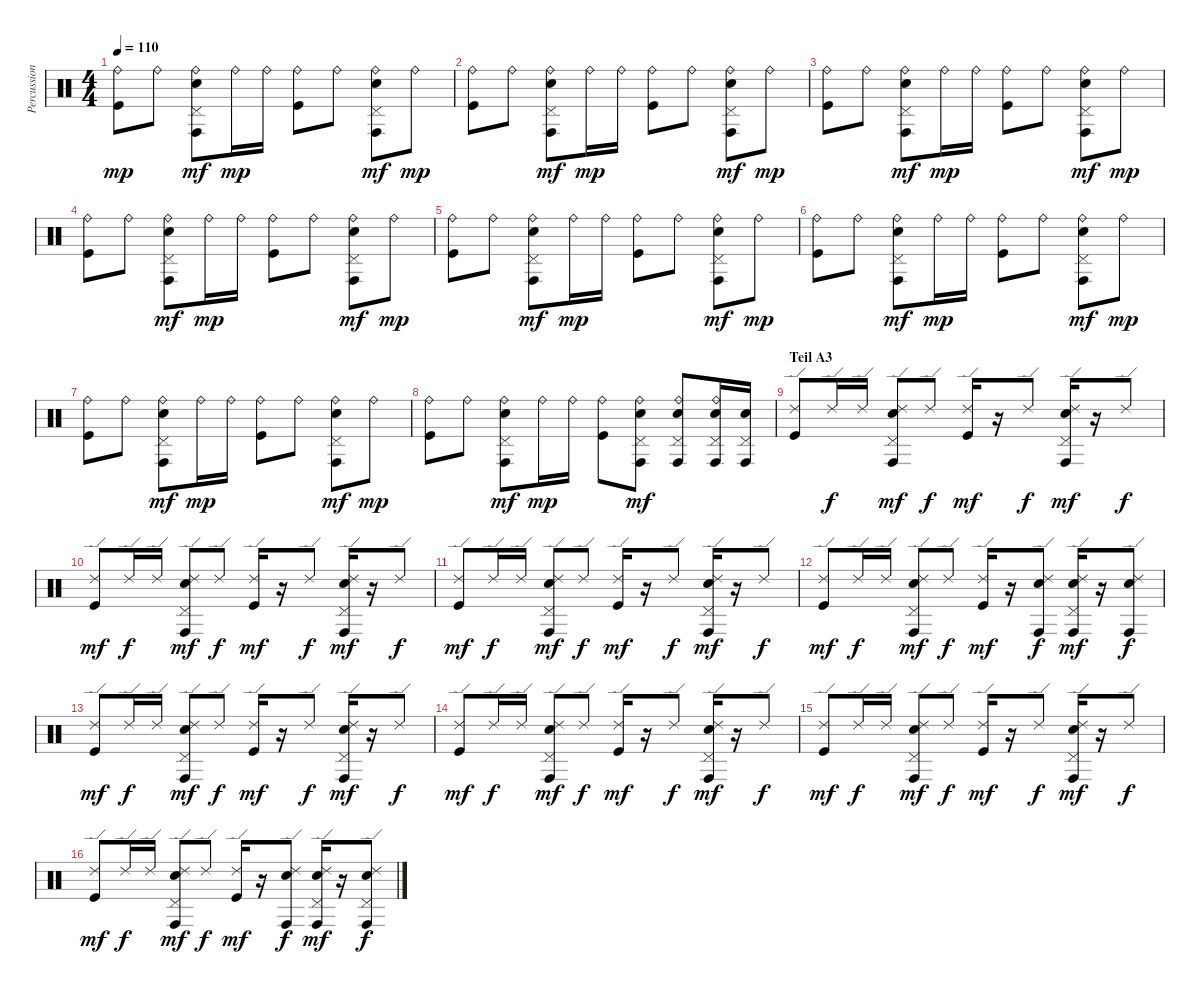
\track ("Percussion" "Percussion") {instrument percussion}
\staff {score}
\articulation defaults
\ts (4 4)
\tempo 110
\clef neutral
\ks c
("Ride (bell)" "Kick (hit)").8{dy mp} "Ride (bell)".8 ("Ride (bell)" "Pedal Hi-Hat (hit)" "Conga high (hit)" "Electric Snare (hit)").8{dy mf} "Ride (bell)".16{dy mp} "Ride (bell)".16 ("Ride (bell)" "Kick (hit)").8 "Ride (bell)".8 ("Ride (bell)" "Pedal Hi-Hat (hit)" "Conga high (hit)" "Electric Snare (hit)").8{dy mf} "Ride (bell)".8{dy mp} |
("Ride (bell)" "Kick (hit)").8 "Ride (bell)".8 ("Ride (bell)" "Pedal Hi-Hat (hit)" "Conga high (hit)" "Electric Snare (hit)").8{dy mf} "Ride (bell)".16{dy mp} "Ride (bell)".16 ("Ride (bell)" "Kick (hit)").8 "Ride (bell)".8 ("Ride (bell)" "Pedal Hi-Hat (hit)" "Conga high (hit)" "Electric Snare (hit)").8{dy mf} "Ride (bell)".8{dy mp} |
("Ride (bell)" "Kick (hit)").8 "Ride (bell)".8 ("Ride (bell)" "Pedal Hi-Hat (hit)" "Conga high (hit)" "Electric Snare (hit)").8{dy mf} "Ride (bell)".16{dy mp} "Ride (bell)".16 ("Ride (bell)" "Kick (hit)").8 "Ride (bell)".8 ("Ride (bell)" "Pedal Hi-Hat (hit)" "Conga high (hit)" "Electric Snare (hit)").8{dy mf} "Ride (bell)".8{dy mp} |
("Ride (bell)" "Kick (hit)").8 "Ride (bell)".8 ("Ride (bell)" "Pedal Hi-Hat (hit)" "Conga high (hit)" "Electric Snare (hit)").8{dy mf} "Ride (bell)".16{dy mp} "Ride (bell)".16 ("Ride (bell)" "Kick (hit)").8 "Ride (bell)".8 ("Ride (bell)" "Pedal Hi-Hat (hit)" "Conga high (hit)" "Electric Snare (hit)").8{dy mf} "Ride (bell)".8{dy mp} |
("Ride (bell)" "Kick (hit)").8 "Ride (bell)".8 ("Ride (bell)" "Pedal Hi-Hat (hit)" "Conga high (hit)" "Electric Snare (hit)").8{dy mf} "Ride (bell)".16{dy mp} "Ride (bell)".16 ("Ride (bell)" "Kick (hit)").8 "Ride (bell)".8 ("Ride (bell)" "Pedal Hi-Hat (hit)" "Conga high (hit)" "Electric Snare (hit)").8{dy mf} "Ride (bell)".8{dy mp} |
("Ride (bell)" "Kick (hit)").8 "Ride (bell)".8 ("Ride (bell)" "Pedal Hi-Hat (hit)" "Conga high (hit)" "Electric Snare (hit)").8{dy mf} "Ride (bell)".16{dy mp} "Ride (bell)".16 ("Ride (bell)" "Kick (hit)").8 "Ride (bell)".8 ("Ride (bell)" "Pedal Hi-Hat (hit)" "Conga high (hit)" "Electric Snare (hit)").8{dy mf} "Ride (bell)".8{dy mp} |
("Ride (bell)" "Kick (hit)").8 "Ride (bell)".8 ("Ride (bell)" "Pedal Hi-Hat (hit)" "Conga high (hit)" "Electric Snare (hit)").8{dy mf} "Ride (bell)".16{dy mp} "Ride (bell)".16 ("Ride (bell)" "Kick (hit)").8 "Ride (bell)".8 ("Ride (bell)" "Pedal Hi-Hat (hit)" "Conga high (hit)" "Electric Snare (hit)").8{dy mf} "Ride (bell)".8{dy mp} |
("Ride (bell)" "Kick (hit)").8 "Ride (bell)".8 ("Ride (bell)" "Pedal Hi-Hat (hit)" "Conga high (hit)" "Electric Snare (hit)").8{dy mf} "Ride (bell)".16{dy mp} "Ride (bell)".16 ("Ride (bell)" "Kick (hit)").8 ("Ride (bell)" "Pedal Hi-Hat (hit)" "Conga high (hit)" "Electric Snare (hit)").8{dy mf} ("Ride (bell)" "Pedal Hi-Hat (hit)" "Conga high (hit)" "Electric Snare (hit)").8 ("Ride (bell)" "Pedal Hi-Hat (hit)" "Conga high (hit)" "Electric Snare (hit)").16 ("Pedal Hi-Hat (hit)" "Conga high (hit)" "Electric Snare (hit)").16 |
\section ("" "Teil A3")
("Ride (edge) 2" "Kick (hit)").8 "Ride (edge) 2".16{dy f} "Ride (edge) 2".16 ("Ride (edge) 2" "Pedal Hi-Hat (hit)" "Conga high (hit)" "Electric Snare (hit)").8{dy mf} "Ride (edge) 2".8{dy f} ("Ride (edge) 2" "Kick (hit)").16{dy mf} r.16 "Ride (edge) 2".8{dy f} ("Ride (edge) 2" "Pedal Hi-Hat (hit)" "Conga high (hit)" "Electric Snare (hit)").16{dy mf} r.16 "Ride (edge) 2".8{dy f} |
("Ride (edge) 2" "Kick (hit)").8{dy mf} "Ride (edge) 2".16{dy f} "Ride (edge) 2".16 ("Ride (edge) 2" "Pedal Hi-Hat (hit)" "Conga high (hit)" "Electric Snare (hit)").8{dy mf} "Ride (edge) 2".8{dy f} ("Ride (edge) 2" "Kick (hit)").16{dy mf} r.16 "Ride (edge) 2".8{dy f} ("Ride (edge) 2" "Pedal Hi-Hat (hit)" "Conga high (hit)" "Electric Snare (hit)").16{dy mf} r.16 "Ride (edge) 2".8{dy f} |
("Ride (edge) 2" "Kick (hit)").8{dy mf} "Ride (edge) 2".16{dy f} "Ride (edge) 2".16 ("Ride (edge) 2" "Pedal Hi-Hat (hit)" "Conga high (hit)" "Electric Snare (hit)").8{dy mf} "Ride (edge) 2".8{dy f} ("Ride (edge) 2" "Kick (hit)").16{dy mf} r.16 "Ride (edge) 2".8{dy f} ("Ride (edge) 2" "Pedal Hi-Hat (hit)" "Conga high (hit)" "Electric Snare (hit)").16{dy mf} r.16 "Ride (edge) 2".8{dy f} |
("Ride (edge) 2" "Kick (hit)").8{dy mf} "Ride (edge) 2".16{dy f} "Ride (edge) 2".16 ("Ride (edge) 2" "Pedal Hi-Hat (hit)" "Conga high (hit)" "Electric Snare (hit)").8{dy mf} "Ride (edge) 2".8{dy f} ("Ride (edge) 2" "Kick (hit)").16{dy mf} r.16 ("Ride (edge) 2" "Conga high (hit)" "Electric Snare (hit)").8{dy f} ("Ride (edge) 2" "Pedal Hi-Hat (hit)" "Conga high (hit)" "Electric Snare (hit)").16{dy mf} r.16 ("Ride (edge) 2" "Conga high (hit)" "Electric Snare (hit)").8{dy f} |
("Ride (edge) 2" "Kick (hit)").8{dy mf} "Ride (edge) 2".16{dy f} "Ride (edge) 2".16 ("Ride (edge) 2" "Pedal Hi-Hat (hit)" "Conga high (hit)" "Electric Snare (hit)").8{dy mf} "Ride (edge) 2".8{dy f} ("Ride (edge) 2" "Kick (hit)").16{dy mf} r.16 "Ride (edge) 2".8{dy f} ("Ride (edge) 2" "Pedal Hi-Hat (hit)" "Conga high (hit)" "Electric Snare (hit)").16{dy mf} r.16 "Ride (edge) 2".8{dy f} |
("Ride (edge) 2" "Kick (hit)").8{dy mf} "Ride (edge) 2".16{dy f} "Ride (edge) 2".16 ("Ride (edge) 2" "Pedal Hi-Hat (hit)" "Conga high (hit)" "Electric Snare (hit)").8{dy mf} "Ride (edge) 2".8{dy f} ("Ride (edge) 2" "Kick (hit)").16{dy mf} r.16 "Ride (edge) 2".8{dy f} ("Ride (edge) 2" "Pedal Hi-Hat (hit)" "Conga high (hit)" "Electric Snare (hit)").16{dy mf} r.16 "Ride (edge) 2".8{dy f} |
("Ride (edge) 2" "Kick (hit)").8{dy mf} "Ride (edge) 2".16{dy f} "Ride (edge) 2".16 ("Ride (edge) 2" "Pedal Hi-Hat (hit)" "Conga high (hit)" "Electric Snare (hit)").8{dy mf} "Ride (edge) 2".8{dy f} ("Ride (edge) 2" "Kick (hit)").16{dy mf} r.16 "Ride (edge) 2".8{dy f} ("Ride (edge) 2" "Pedal Hi-Hat (hit)" "Conga high (hit)" "Electric Snare (hit)").16{dy mf} r.16 "Ride (edge) 2".8{dy f} |
("Ride (edge) 2" "Kick (hit)").8{dy mf} "Ride (edge) 2".16{dy f} "Ride (edge) 2".16 ("Ride (edge) 2" "Pedal Hi-Hat (hit)" "Conga high (hit)" "Electric Snare (hit)").8{dy mf} "Ride (edge) 2".8{dy f} ("Ride (edge) 2" "Kick (hit)").16{dy mf} r.16 ("Ride (edge) 2" "Conga high (hit)" "Electric Snare (hit)").8{dy f} ("Ride (edge) 2" "Pedal Hi-Hat (hit)" "Conga high (hit)" "Electric Snare (hit)").16{dy mf} r.16 ("Ride (edge) 2" "Pedal Hi-Hat (hit)" "Conga high (hit)" "Electric Snare (hit)").8{dy f}
